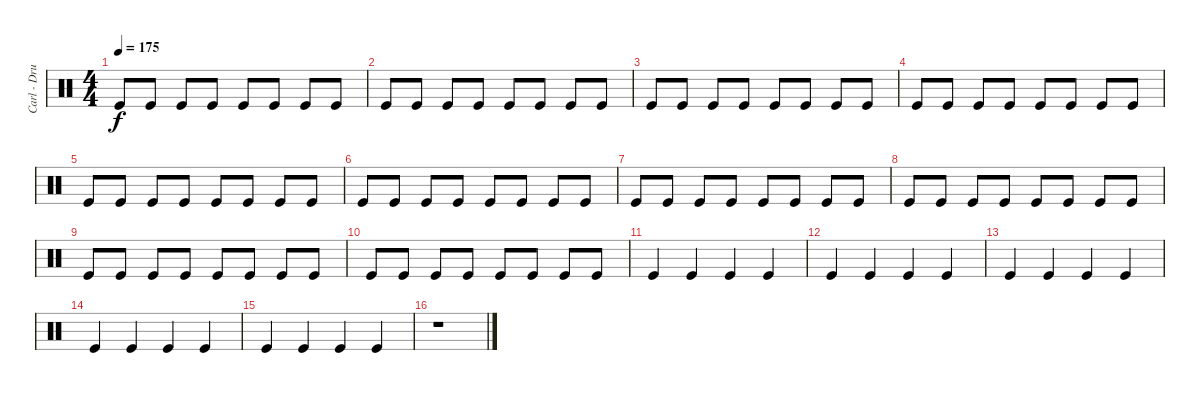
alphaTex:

\track ("Carl - Drums I" "Carl - Dru") {instrument percussion}
\staff {score}
\articulation defaults
\ts (4 4)
\tempo 175
\clef neutral
\ks c "Kick (hit)".8{dy f} "Kick (hit)".8 "Kick (hit)".8 "Kick (hit)".8 "Kick (hit)".8 "Kick (hit)".8 "Kick (hit)".8 "Kick (hit)".8
|
"Kick (hit)".8 "Kick (hit)".8 "Kick (hit)".8 "Kick (hit)".8 "Kick (hit)".8 "Kick (hit)".8 "Kick (hit)".8 "Kick (hit)".8 |
"Kick (hit)".8 "Kick (hit)".8 "Kick (hit)".8 "Kick (hit)".8 "Kick (hit)".8 "Kick (hit)".8 "Kick (hit)".8 "Kick (hit)".8 |
"Kick (hit)".8 "Kick (hit)".8 "Kick (hit)".8 "Kick (hit)".8 "Kick (hit)".8 "Kick (hit)".8 "Kick (hit)".8 "Kick (hit)".8 |
"Kick (hit)".8 "Kick (hit)".8 "Kick (hit)".8 "Kick (hit)".8 "Kick (hit)".8 "Kick (hit)".8 "Kick (hit)".8 "Kick (hit)".8 |
"Kick (hit)".8 "Kick (hit)".8 "Kick (hit)".8 "Kick (hit)".8 "Kick (hit)".8 "Kick (hit)".8 "Kick (hit)".8 "Kick (hit)".8 |
"Kick (hit)".8 "Kick (hit)".8 "Kick (hit)".8 "Kick (hit)".8 "Kick (hit)".8 "Kick (hit)".8 "Kick (hit)".8 "Kick (hit)".8 |
"Kick (hit)".8 "Kick (hit)".8 "Kick (hit)".8 "Kick (hit)".8 "Kick (hit)".8 "Kick (hit)".8 "Kick (hit)".8 "Kick (hit)".8 |
"Kick (hit)".8 "Kick (hit)".8 "Kick (hit)".8 "Kick (hit)".8 "Kick (hit)".8 "Kick (hit)".8 "Kick (hit)".8 "Kick (hit)".8 |
"Kick (hit)".8 "Kick (hit)".8 "Kick (hit)".8 "Kick (hit)".8 "Kick (hit)".8 "Kick (hit)".8 "Kick (hit)".8 "Kick (hit)".8 |
"Kick (hit)".4 "Kick (hit)".4 "Kick (hit)".4 "Kick (hit)".4 |
"Kick (hit)".4 "Kick (hit)".4 "Kick (hit)".4 "Kick (hit)".4 |
"Kick (hit)".4 "Kick (hit)".4 "Kick (hit)".4 "Kick (hit)".4 |
"Kick (hit)".4 "Kick (hit)".4 "Kick (hit)".4 "Kick (hit)".4 |
"Kick (hit)".4 "Kick (hit)".4 "Kick (hit)".4 "Kick (hit)".4 |
r.1
